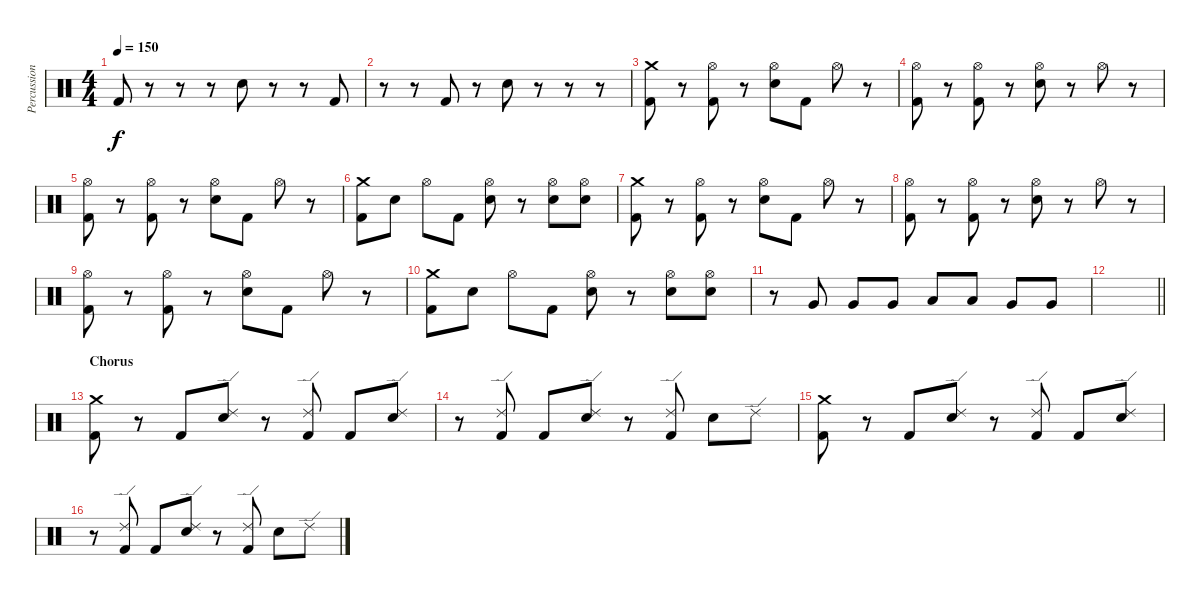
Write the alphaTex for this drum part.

\track ("Percussion" "Percussion") {instrument percussion}
\staff {score}
\articulation defaults
\ts (4 4)
\tempo 150
\clef neutral
\ks c "Kick (hit) 2".8{dy f}
r.8 r.8 r.8 "Electric Snare (hit)".8 r.8 r.8 "Kick (hit) 2".8 |
r.8 r.8 "Kick (hit) 2".8 r.8 "Electric Snare (hit)".8 r.8 r.8 r.8 |
("Crash medium (hit)" "Kick (hit) 2").8 r.8 ("Hi-Hat (open)" "Kick (hit) 2").8 r.8 ("Hi-Hat (open)" "Electric Snare (hit)").8 "Kick (hit) 2".8 "Hi-Hat (open)".8 r.8 |
("Hi-Hat (open)" "Kick (hit) 2").8 r.8 ("Hi-Hat (open)" "Kick (hit) 2").8 r.8 ("Hi-Hat (open)" "Electric Snare (hit)").8 r.8 "Hi-Hat (open)".8 r.8 |
("Hi-Hat (open)" "Kick (hit) 2").8 r.8 ("Hi-Hat (open)" "Kick (hit) 2").8 r.8 ("Hi-Hat (open)" "Electric Snare (hit)").8 "Kick (hit) 2".8 "Hi-Hat (open)".8 r.8 |
("Crash medium (hit)" "Kick (hit) 2").8 "Electric Snare (hit)".8 "Hi-Hat (open)".8 "Kick (hit) 2".8 ("Hi-Hat (open)" "Electric Snare (hit)").8 r.8 ("Hi-Hat (open)" "Electric Snare (hit)").8 ("Hi-Hat (open)" "Electric Snare (hit)").8 |
("Crash medium (hit)" "Kick (hit) 2").8 r.8 ("Hi-Hat (open)" "Kick (hit) 2").8 r.8 ("Hi-Hat (open)" "Electric Snare (hit)").8 "Kick (hit) 2".8 "Hi-Hat (open)".8 r.8 |
("Hi-Hat (open)" "Kick (hit) 2").8 r.8 ("Hi-Hat (open)" "Kick (hit) 2").8 r.8 ("Hi-Hat (open)" "Electric Snare (hit)").8 r.8 "Hi-Hat (open)".8 r.8 |
("Hi-Hat (open)" "Kick (hit) 2").8 r.8 ("Hi-Hat (open)" "Kick (hit) 2").8 r.8 ("Hi-Hat (open)" "Electric Snare (hit)").8 "Kick (hit) 2".8 "Hi-Hat (open)".8 r.8 |
("Crash medium (hit)" "Kick (hit) 2").8 "Electric Snare (hit)".8 "Hi-Hat (open)".8 "Kick (hit) 2".8 ("Hi-Hat (open)" "Electric Snare (hit)").8 r.8 ("Hi-Hat (open)" "Electric Snare (hit)").8 ("Hi-Hat (open)" "Electric Snare (hit)").8 |
r.8 "Very Low Tom (hit)".8 "Very Low Tom (hit)".8 "Very Low Tom (hit)".8 "Low Tom (hit)".8 "Low Tom (hit)".8 "Very Low Tom (hit)".8 "Very Low Tom (hit)".8 |
\barLineRight lightlight
|
\section ("" "Chorus")
("Crash medium (hit)" "Kick (hit) 2").8 r.8 "Kick (hit) 2".8 ("Ride (edge) 2" "Electric Snare (hit)").8 r.8 ("Ride (edge) 2" "Kick (hit) 2").8 "Kick (hit) 2".8 ("Ride (edge) 2" "Electric Snare (hit)").8 |
r.8 ("Ride (edge) 2" "Kick (hit) 2").8 "Kick (hit) 2".8 ("Ride (edge) 2" "Electric Snare (hit)").8 r.8 ("Ride (edge) 2" "Kick (hit) 2").8 "Electric Snare (hit)".8 "Ride (edge) 2".8 |
("Crash medium (hit)" "Kick (hit) 2").8 r.8 "Kick (hit) 2".8 ("Ride (edge) 2" "Electric Snare (hit)").8 r.8 ("Ride (edge) 2" "Kick (hit) 2").8 "Kick (hit) 2".8 ("Ride (edge) 2" "Electric Snare (hit)").8 |
r.8 ("Ride (edge) 2" "Kick (hit) 2").8 "Kick (hit) 2".8 ("Ride (edge) 2" "Electric Snare (hit)").8 r.8 ("Ride (edge) 2" "Kick (hit) 2").8 "Electric Snare (hit)".8 "Ride (edge) 2".8
